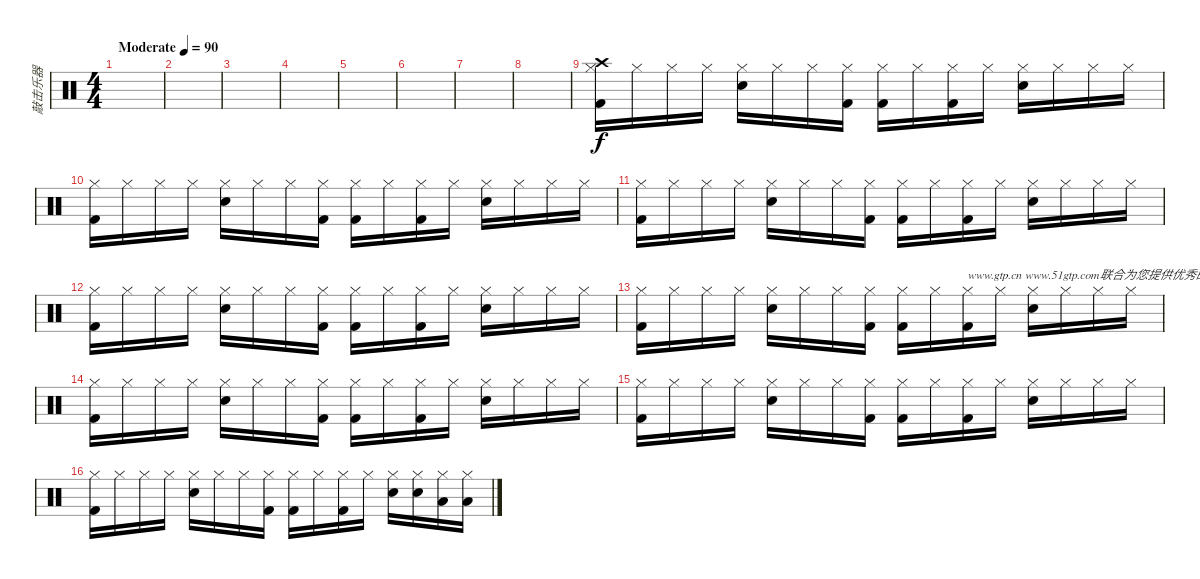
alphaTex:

\track ("敲击乐器" "敲击乐器") {instrument percussion}
\staff {score}
\articulation defaults
\ts (4 4)
\tempo (90 "Moderate")
\clef neutral
\ks c
|
|
|
|
|
|
|
|
("Hi-Hat (closed)" "Kick (hit) 2" "Crash high (hit)").16 "Hi-Hat (closed)".16 "Hi-Hat (closed)".16 "Hi-Hat (closed)".16 ("Hi-Hat (closed)" "Electric Snare (hit)").16 "Hi-Hat (closed)".16 "Hi-Hat (closed)".16 ("Hi-Hat (closed)" "Kick (hit) 2").16 ("Hi-Hat (closed)" "Kick (hit) 2").16 "Hi-Hat (closed)".16 ("Hi-Hat (closed)" "Kick (hit) 2").16 "Hi-Hat (closed)".16 ("Hi-Hat (closed)" "Electric Snare (hit)").16 "Hi-Hat (closed)".16 "Hi-Hat (closed)".16 "Hi-Hat (closed)".16 |
("Hi-Hat (closed)" "Kick (hit) 2").16 "Hi-Hat (closed)".16 "Hi-Hat (closed)".16 "Hi-Hat (closed)".16 ("Hi-Hat (closed)" "Electric Snare (hit)").16 "Hi-Hat (closed)".16 "Hi-Hat (closed)".16 ("Hi-Hat (closed)" "Kick (hit) 2").16 ("Hi-Hat (closed)" "Kick (hit) 2").16 "Hi-Hat (closed)".16 ("Hi-Hat (closed)" "Kick (hit) 2").16 "Hi-Hat (closed)".16 ("Hi-Hat (closed)" "Electric Snare (hit)").16 "Hi-Hat (closed)".16 "Hi-Hat (closed)".16 "Hi-Hat (closed)".16 |
("Hi-Hat (closed)" "Kick (hit) 2").16 "Hi-Hat (closed)".16 "Hi-Hat (closed)".16 "Hi-Hat (closed)".16 ("Hi-Hat (closed)" "Electric Snare (hit)").16 "Hi-Hat (closed)".16 "Hi-Hat (closed)".16 ("Hi-Hat (closed)" "Kick (hit) 2").16 ("Hi-Hat (closed)" "Kick (hit) 2").16 "Hi-Hat (closed)".16 ("Hi-Hat (closed)" "Kick (hit) 2").16 "Hi-Hat (closed)".16 ("Hi-Hat (closed)" "Electric Snare (hit)").16 "Hi-Hat (closed)".16 "Hi-Hat (closed)".16 "Hi-Hat (closed)".16 |
("Hi-Hat (closed)" "Kick (hit) 2").16 "Hi-Hat (closed)".16 "Hi-Hat (closed)".16 "Hi-Hat (closed)".16 ("Hi-Hat (closed)" "Electric Snare (hit)").16 "Hi-Hat (closed)".16 "Hi-Hat (closed)".16 ("Hi-Hat (closed)" "Kick (hit) 2").16 ("Hi-Hat (closed)" "Kick (hit) 2").16 "Hi-Hat (closed)".16 ("Hi-Hat (closed)" "Kick (hit) 2").16 "Hi-Hat (closed)".16 ("Hi-Hat (closed)" "Electric Snare (hit)").16 "Hi-Hat (closed)".16 "Hi-Hat (closed)".16 "Hi-Hat (closed)".16 |
("Hi-Hat (closed)" "Kick (hit) 2").16 "Hi-Hat (closed)".16 "Hi-Hat (closed)".16 "Hi-Hat (closed)".16 ("Hi-Hat (closed)" "Electric Snare (hit)").16 "Hi-Hat (closed)".16 "Hi-Hat (closed)".16 ("Hi-Hat (closed)" "Kick (hit) 2").16 ("Hi-Hat (closed)" "Kick (hit) 2").16 "Hi-Hat (closed)".16 ("Hi-Hat (closed)" "Kick (hit) 2").16{txt "www.gtp.cn www.51gtp.com联合为您提供优秀的GTP!"} "Hi-Hat (closed)".16 ("Hi-Hat (closed)" "Electric Snare (hit)").16 "Hi-Hat (closed)".16 "Hi-Hat (closed)".16 "Hi-Hat (closed)".16 |
("Hi-Hat (closed)" "Kick (hit) 2").16 "Hi-Hat (closed)".16 "Hi-Hat (closed)".16 "Hi-Hat (closed)".16 ("Hi-Hat (closed)" "Electric Snare (hit)").16 "Hi-Hat (closed)".16 "Hi-Hat (closed)".16 ("Hi-Hat (closed)" "Kick (hit) 2").16 ("Hi-Hat (closed)" "Kick (hit) 2").16 "Hi-Hat (closed)".16 ("Hi-Hat (closed)" "Kick (hit) 2").16 "Hi-Hat (closed)".16 ("Hi-Hat (closed)" "Electric Snare (hit)").16 "Hi-Hat (closed)".16 "Hi-Hat (closed)".16 "Hi-Hat (closed)".16 |
("Hi-Hat (closed)" "Kick (hit) 2").16 "Hi-Hat (closed)".16 "Hi-Hat (closed)".16 "Hi-Hat (closed)".16 ("Hi-Hat (closed)" "Electric Snare (hit)").16 "Hi-Hat (closed)".16 "Hi-Hat (closed)".16 ("Hi-Hat (closed)" "Kick (hit) 2").16 ("Hi-Hat (closed)" "Kick (hit) 2").16 "Hi-Hat (closed)".16 ("Hi-Hat (closed)" "Kick (hit) 2").16 "Hi-Hat (closed)".16 ("Hi-Hat (closed)" "Electric Snare (hit)").16 "Hi-Hat (closed)".16 "Hi-Hat (closed)".16 "Hi-Hat (closed)".16 |
("Hi-Hat (closed)" "Kick (hit) 2").16 "Hi-Hat (closed)".16 "Hi-Hat (closed)".16 "Hi-Hat (closed)".16 ("Hi-Hat (closed)" "Electric Snare (hit)").16 "Hi-Hat (closed)".16 "Hi-Hat (closed)".16 ("Hi-Hat (closed)" "Kick (hit) 2").16 ("Hi-Hat (closed)" "Kick (hit) 2").16 "Hi-Hat (closed)".16 ("Hi-Hat (closed)" "Kick (hit) 2").16 "Hi-Hat (closed)".16 ("Hi-Hat (closed)" "Electric Snare (hit)").16 ("Hi-Hat (closed)" "Electric Snare (hit)").16 ("Hi-Hat (closed)" "Low Floor Tom (hit)").16 ("Hi-Hat (closed)" "Low Floor Tom (hit)").16
